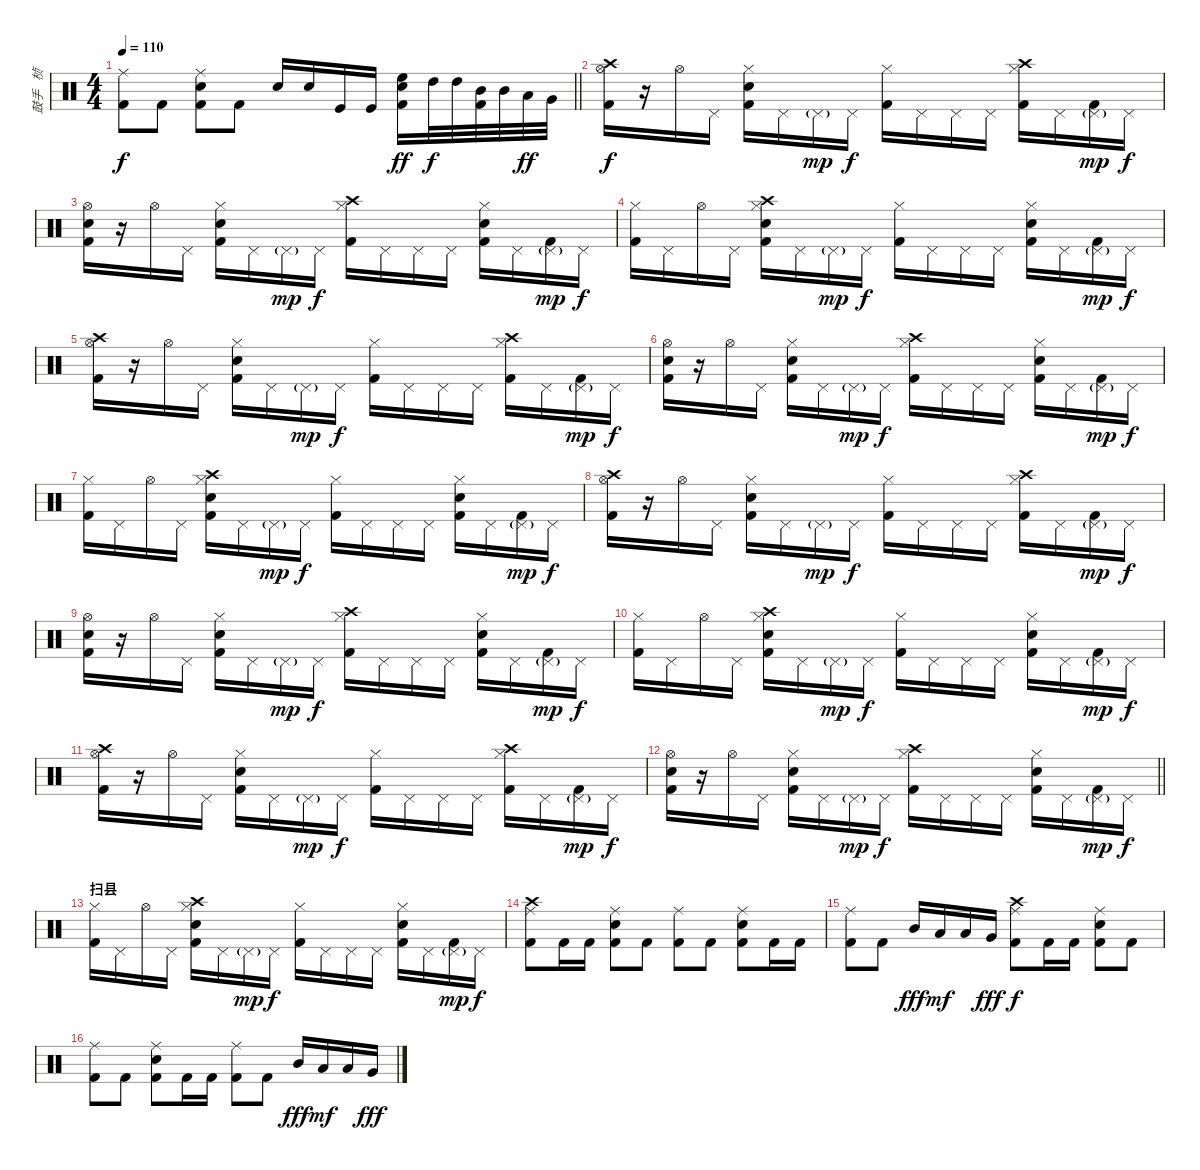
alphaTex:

\track ("鼓手   桢" "鼓手   桢") {instrument percussion bank 1}
\staff {score}
\articulation defaults
\ts (4 4)
\tempo 110
\clef neutral
\barLineRight lightlight
\ks c
("Ride (middle)" "Kick (hit) 2").8{dy f} "Kick (hit) 2".8 ("Ride (middle)" "Snare (hit) 2" "Kick (hit) 2").8 "Kick (hit) 2".8 "Snare (hit) 2".16 "Snare (hit) 2".16 "Kick (hit)".16 "Kick (hit)".16 ("Electric Snare (hit)" "High Floor Tom (hit)" "Kick (hit) 2").16{dy ff} "High Tom (hit)".32{dy f} "High Tom (hit)".32 ("Mid Tom (hit)" "Kick (hit) 2").32 "Mid Tom (hit)".32 "Low Tom (hit)".32{dy ff} "Very Low Tom (hit)".32 |
("Hi-Hat (open)" "Kick (hit) 2" "Crash high (hit)").16{dy f} r.16 "Hi-Hat (open)".16 "Pedal Hi-Hat (hit)".16 ("Hi-Hat (closed)" "Snare (hit) 2" "Kick (hit) 2").16 "Pedal Hi-Hat (hit)".16 "Pedal Hi-Hat (hit)"{g}.16{dy mp} "Pedal Hi-Hat (hit)".16{dy f} ("Hi-Hat (closed)" "Kick (hit) 2").16 "Pedal Hi-Hat (hit)".16 "Pedal Hi-Hat (hit)".16 "Pedal Hi-Hat (hit)".16 ("Hi-Hat (closed)" "Kick (hit) 2" "Crash high (hit)").16 "Pedal Hi-Hat (hit)".16 ("Pedal Hi-Hat (hit)"{g} "Kick (hit) 2").16{dy mp} "Pedal Hi-Hat (hit)".16{dy f} |
("Hi-Hat (open)" "Snare (hit) 2" "Kick (hit) 2").16 r.16 "Hi-Hat (open)".16 "Pedal Hi-Hat (hit)".16 ("Hi-Hat (closed)" "Snare (hit) 2" "Kick (hit) 2").16 "Pedal Hi-Hat (hit)".16 "Pedal Hi-Hat (hit)"{g}.16{dy mp} "Pedal Hi-Hat (hit)".16{dy f} ("Hi-Hat (closed)" "Kick (hit) 2" "Crash high (hit)").16 "Pedal Hi-Hat (hit)".16 "Pedal Hi-Hat (hit)".16 "Pedal Hi-Hat (hit)".16 ("Hi-Hat (closed)" "Snare (hit) 2" "Kick (hit) 2").16 "Pedal Hi-Hat (hit)".16 ("Pedal Hi-Hat (hit)"{g} "Kick (hit) 2").16{dy mp} "Pedal Hi-Hat (hit)".16{dy f} |
("Hi-Hat (closed)" "Kick (hit) 2").16 "Pedal Hi-Hat (hit)".16 "Hi-Hat (open)".16 "Pedal Hi-Hat (hit)".16 ("Hi-Hat (closed)" "Snare (hit) 2" "Kick (hit) 2" "Crash high (hit)").16 "Pedal Hi-Hat (hit)".16 "Pedal Hi-Hat (hit)"{g}.16{dy mp} "Pedal Hi-Hat (hit)".16{dy f} ("Hi-Hat (closed)" "Kick (hit) 2").16 "Pedal Hi-Hat (hit)".16 "Pedal Hi-Hat (hit)".16 "Pedal Hi-Hat (hit)".16 ("Hi-Hat (closed)" "Snare (hit) 2" "Kick (hit) 2").16 "Pedal Hi-Hat (hit)".16 ("Pedal Hi-Hat (hit)"{g} "Kick (hit) 2").16{dy mp} "Pedal Hi-Hat (hit)".16{dy f} |
("Hi-Hat (open)" "Kick (hit) 2" "Crash high (hit)").16 r.16 "Hi-Hat (open)".16 "Pedal Hi-Hat (hit)".16 ("Hi-Hat (closed)" "Snare (hit) 2" "Kick (hit) 2").16 "Pedal Hi-Hat (hit)".16 "Pedal Hi-Hat (hit)"{g}.16{dy mp} "Pedal Hi-Hat (hit)".16{dy f} ("Hi-Hat (closed)" "Kick (hit) 2").16 "Pedal Hi-Hat (hit)".16 "Pedal Hi-Hat (hit)".16 "Pedal Hi-Hat (hit)".16 ("Hi-Hat (closed)" "Kick (hit) 2" "Crash high (hit)").16 "Pedal Hi-Hat (hit)".16 ("Pedal Hi-Hat (hit)"{g} "Kick (hit) 2").16{dy mp} "Pedal Hi-Hat (hit)".16{dy f} |
("Hi-Hat (open)" "Snare (hit) 2" "Kick (hit) 2").16 r.16 "Hi-Hat (open)".16 "Pedal Hi-Hat (hit)".16 ("Hi-Hat (closed)" "Snare (hit) 2" "Kick (hit) 2").16 "Pedal Hi-Hat (hit)".16 "Pedal Hi-Hat (hit)"{g}.16{dy mp} "Pedal Hi-Hat (hit)".16{dy f} ("Hi-Hat (closed)" "Kick (hit) 2" "Crash high (hit)").16 "Pedal Hi-Hat (hit)".16 "Pedal Hi-Hat (hit)".16 "Pedal Hi-Hat (hit)".16 ("Hi-Hat (closed)" "Snare (hit) 2" "Kick (hit) 2").16 "Pedal Hi-Hat (hit)".16 ("Pedal Hi-Hat (hit)"{g} "Kick (hit) 2").16{dy mp} "Pedal Hi-Hat (hit)".16{dy f} |
("Hi-Hat (closed)" "Kick (hit) 2").16 "Pedal Hi-Hat (hit)".16 "Hi-Hat (open)".16 "Pedal Hi-Hat (hit)".16 ("Hi-Hat (closed)" "Snare (hit) 2" "Kick (hit) 2" "Crash high (hit)").16 "Pedal Hi-Hat (hit)".16 "Pedal Hi-Hat (hit)"{g}.16{dy mp} "Pedal Hi-Hat (hit)".16{dy f} ("Hi-Hat (closed)" "Kick (hit) 2").16 "Pedal Hi-Hat (hit)".16 "Pedal Hi-Hat (hit)".16 "Pedal Hi-Hat (hit)".16 ("Hi-Hat (closed)" "Snare (hit) 2" "Kick (hit) 2").16 "Pedal Hi-Hat (hit)".16 ("Pedal Hi-Hat (hit)"{g} "Kick (hit) 2").16{dy mp} "Pedal Hi-Hat (hit)".16{dy f} |
("Hi-Hat (open)" "Kick (hit) 2" "Crash high (hit)").16 r.16 "Hi-Hat (open)".16 "Pedal Hi-Hat (hit)".16 ("Hi-Hat (closed)" "Snare (hit) 2" "Kick (hit) 2").16 "Pedal Hi-Hat (hit)".16 "Pedal Hi-Hat (hit)"{g}.16{dy mp} "Pedal Hi-Hat (hit)".16{dy f} ("Hi-Hat (closed)" "Kick (hit) 2").16 "Pedal Hi-Hat (hit)".16 "Pedal Hi-Hat (hit)".16 "Pedal Hi-Hat (hit)".16 ("Hi-Hat (closed)" "Kick (hit) 2" "Crash high (hit)").16 "Pedal Hi-Hat (hit)".16 ("Pedal Hi-Hat (hit)"{g} "Kick (hit) 2").16{dy mp} "Pedal Hi-Hat (hit)".16{dy f} |
("Hi-Hat (open)" "Snare (hit) 2" "Kick (hit) 2").16 r.16 "Hi-Hat (open)".16 "Pedal Hi-Hat (hit)".16 ("Hi-Hat (closed)" "Snare (hit) 2" "Kick (hit) 2").16 "Pedal Hi-Hat (hit)".16 "Pedal Hi-Hat (hit)"{g}.16{dy mp} "Pedal Hi-Hat (hit)".16{dy f} ("Hi-Hat (closed)" "Kick (hit) 2" "Crash high (hit)").16 "Pedal Hi-Hat (hit)".16 "Pedal Hi-Hat (hit)".16 "Pedal Hi-Hat (hit)".16 ("Hi-Hat (closed)" "Snare (hit) 2" "Kick (hit) 2").16 "Pedal Hi-Hat (hit)".16 ("Pedal Hi-Hat (hit)"{g} "Kick (hit) 2").16{dy mp} "Pedal Hi-Hat (hit)".16{dy f} |
("Hi-Hat (closed)" "Kick (hit) 2").16 "Pedal Hi-Hat (hit)".16 "Hi-Hat (open)".16 "Pedal Hi-Hat (hit)".16 ("Hi-Hat (closed)" "Snare (hit) 2" "Kick (hit) 2" "Crash high (hit)").16 "Pedal Hi-Hat (hit)".16 "Pedal Hi-Hat (hit)"{g}.16{dy mp} "Pedal Hi-Hat (hit)".16{dy f} ("Hi-Hat (closed)" "Kick (hit) 2").16 "Pedal Hi-Hat (hit)".16 "Pedal Hi-Hat (hit)".16 "Pedal Hi-Hat (hit)".16 ("Hi-Hat (closed)" "Snare (hit) 2" "Kick (hit) 2").16 "Pedal Hi-Hat (hit)".16 ("Pedal Hi-Hat (hit)"{g} "Kick (hit) 2").16{dy mp} "Pedal Hi-Hat (hit)".16{dy f} |
("Hi-Hat (open)" "Kick (hit) 2" "Crash high (hit)").16 r.16 "Hi-Hat (open)".16 "Pedal Hi-Hat (hit)".16 ("Hi-Hat (closed)" "Snare (hit) 2" "Kick (hit) 2").16 "Pedal Hi-Hat (hit)".16 "Pedal Hi-Hat (hit)"{g}.16{dy mp} "Pedal Hi-Hat (hit)".16{dy f} ("Hi-Hat (closed)" "Kick (hit) 2").16 "Pedal Hi-Hat (hit)".16 "Pedal Hi-Hat (hit)".16 "Pedal Hi-Hat (hit)".16 ("Hi-Hat (closed)" "Kick (hit) 2" "Crash high (hit)").16 "Pedal Hi-Hat (hit)".16 ("Pedal Hi-Hat (hit)"{g} "Kick (hit) 2").16{dy mp} "Pedal Hi-Hat (hit)".16{dy f} |
\barLineRight lightlight
("Hi-Hat (open)" "Snare (hit) 2" "Kick (hit) 2").16 r.16 "Hi-Hat (open)".16 "Pedal Hi-Hat (hit)".16 ("Hi-Hat (closed)" "Snare (hit) 2" "Kick (hit) 2").16 "Pedal Hi-Hat (hit)".16 "Pedal Hi-Hat (hit)"{g}.16{dy mp} "Pedal Hi-Hat (hit)".16{dy f} ("Hi-Hat (closed)" "Kick (hit) 2" "Crash high (hit)").16 "Pedal Hi-Hat (hit)".16 "Pedal Hi-Hat (hit)".16 "Pedal Hi-Hat (hit)".16 ("Hi-Hat (closed)" "Snare (hit) 2" "Kick (hit) 2").16 "Pedal Hi-Hat (hit)".16 ("Pedal Hi-Hat (hit)"{g} "Kick (hit) 2").16{dy mp} "Pedal Hi-Hat (hit)".16{dy f} |
\section ("" "扫县")
("Hi-Hat (closed)" "Kick (hit) 2").16 "Pedal Hi-Hat (hit)".16 "Hi-Hat (open)".16 "Pedal Hi-Hat (hit)".16 ("Hi-Hat (closed)" "Snare (hit) 2" "Kick (hit) 2" "Crash high (hit)").16 "Pedal Hi-Hat (hit)".16 "Pedal Hi-Hat (hit)"{g}.16{dy mp} "Pedal Hi-Hat (hit)".16{dy f} ("Hi-Hat (closed)" "Kick (hit) 2").16 "Pedal Hi-Hat (hit)".16 "Pedal Hi-Hat (hit)".16 "Pedal Hi-Hat (hit)".16 ("Hi-Hat (closed)" "Snare (hit) 2" "Kick (hit) 2").16 "Pedal Hi-Hat (hit)".16 ("Pedal Hi-Hat (hit)"{g} "Kick (hit) 2").16{dy mp} "Pedal Hi-Hat (hit)".16{dy f} |
("Ride (middle)" "Kick (hit) 2" "Crash high (hit)").8 "Kick (hit) 2".16 "Kick (hit) 2".16 ("Ride (middle)" "Snare (hit) 2" "Kick (hit) 2").8 "Kick (hit) 2".8 ("Ride (middle)" "Kick (hit) 2").8 "Kick (hit) 2".8 ("Ride (middle)" "Snare (hit) 2" "Kick (hit) 2").8 "Kick (hit) 2".16 "Kick (hit) 2".16 |
("Ride (middle)" "Kick (hit) 2").8 "Kick (hit) 2".8 "Mid Tom (hit)".16{dy fff} "Low Tom (hit)".16{dy mf} "Low Tom (hit)".16 "Very Low Tom (hit)".16{dy fff} ("Ride (middle)" "Kick (hit) 2" "Crash high (hit)").8{dy f} "Kick (hit) 2".16 "Kick (hit) 2".16 ("Ride (middle)" "Snare (hit) 2" "Kick (hit) 2").8 "Kick (hit) 2".8 |
("Ride (middle)" "Kick (hit) 2").8 "Kick (hit) 2".8 ("Ride (middle)" "Snare (hit) 2" "Kick (hit) 2").8 "Kick (hit) 2".16 "Kick (hit) 2".16 ("Ride (middle)" "Kick (hit) 2").8 "Kick (hit) 2".8 "Mid Tom (hit)".16{dy fff} "Low Tom (hit)".16{dy mf} "Low Tom (hit)".16 "Very Low Tom (hit)".16{dy fff}
